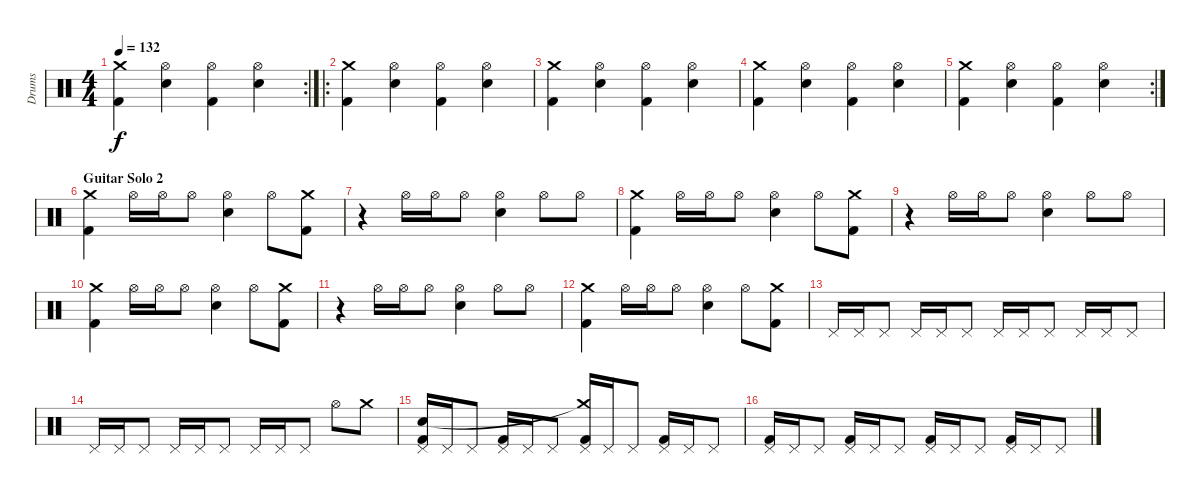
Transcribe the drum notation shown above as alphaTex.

\track ("Drums" "Drums") {instrument percussion}
\staff {score}
\articulation defaults
\rc 2
\ts (4 4)
\tempo 132
\clef neutral
\ks c
("Kick (hit) 2" "Crash medium (hit)").4{dy f} ("Electric Snare (hit)" "Hi-Hat (open)").4 ("Kick (hit) 2" "Hi-Hat (open)").4 ("Electric Snare (hit)" "Hi-Hat (open)").4 |
\ro
("Kick (hit) 2" "Crash medium (hit)").4 ("Electric Snare (hit)" "Hi-Hat (open)").4 ("Kick (hit) 2" "Hi-Hat (open)").4 ("Electric Snare (hit)" "Hi-Hat (open)").4 |
("Kick (hit) 2" "Crash medium (hit)").4 ("Electric Snare (hit)" "Hi-Hat (open)").4 ("Kick (hit) 2" "Hi-Hat (open)").4 ("Electric Snare (hit)" "Hi-Hat (open)").4 |
("Kick (hit) 2" "Crash medium (hit)").4 ("Electric Snare (hit)" "Hi-Hat (open)").4 ("Kick (hit) 2" "Hi-Hat (open)").4 ("Electric Snare (hit)" "Hi-Hat (open)").4 |
\rc 2
("Kick (hit) 2" "Crash medium (hit)").4 ("Electric Snare (hit)" "Hi-Hat (open)").4 ("Kick (hit) 2" "Hi-Hat (open)").4 ("Electric Snare (hit)" "Hi-Hat (open)").4 |
\section ("" "Guitar Solo 2")
("Kick (hit) 2" "Crash medium (hit)").4 "Hi-Hat (open)".16 "Hi-Hat (open)".16 "Hi-Hat (open)".8 ("Snare (hit) 2" "Hi-Hat (open)").4 "Hi-Hat (open)".8 ("Kick (hit) 2" "Crash medium (hit)").8 |
r.4 "Hi-Hat (open)".16 "Hi-Hat (open)".16 "Hi-Hat (open)".8 ("Snare (hit) 2" "Hi-Hat (open)").4 "Hi-Hat (open)".8 "Hi-Hat (open)".8 |
("Kick (hit) 2" "Crash medium (hit)").4 "Hi-Hat (open)".16 "Hi-Hat (open)".16 "Hi-Hat (open)".8 ("Snare (hit) 2" "Hi-Hat (open)").4 "Hi-Hat (open)".8 ("Kick (hit) 2" "Crash medium (hit)").8 |
r.4 "Hi-Hat (open)".16 "Hi-Hat (open)".16 "Hi-Hat (open)".8 ("Snare (hit) 2" "Hi-Hat (open)").4 "Hi-Hat (open)".8 "Hi-Hat (open)".8 |
("Kick (hit) 2" "Crash medium (hit)").4 "Hi-Hat (open)".16 "Hi-Hat (open)".16 "Hi-Hat (open)".8 ("Snare (hit) 2" "Hi-Hat (open)").4 "Hi-Hat (open)".8 ("Kick (hit) 2" "Crash medium (hit)").8 |
r.4 "Hi-Hat (open)".16 "Hi-Hat (open)".16 "Hi-Hat (open)".8 ("Snare (hit) 2" "Hi-Hat (open)").4 "Hi-Hat (open)".8 "Hi-Hat (open)".8 |
("Kick (hit) 2" "Crash medium (hit)").4 "Hi-Hat (open)".16 "Hi-Hat (open)".16 "Hi-Hat (open)".8 ("Snare (hit) 2" "Hi-Hat (open)").4 "Hi-Hat (open)".8 ("Kick (hit) 2" "Crash medium (hit)").8 |
"Pedal Hi-Hat (hit)".16{volume 6} "Pedal Hi-Hat (hit)".16 "Pedal Hi-Hat (hit)".8 "Pedal Hi-Hat (hit)".16 "Pedal Hi-Hat (hit)".16 "Pedal Hi-Hat (hit)".8 "Pedal Hi-Hat (hit)".16{volume 7} "Pedal Hi-Hat (hit)".16 "Pedal Hi-Hat (hit)".8 "Pedal Hi-Hat (hit)".16 "Pedal Hi-Hat (hit)".16 "Pedal Hi-Hat (hit)".8 |
"Pedal Hi-Hat (hit)".16{volume 8} "Pedal Hi-Hat (hit)".16 "Pedal Hi-Hat (hit)".8 "Pedal Hi-Hat (hit)".16 "Pedal Hi-Hat (hit)".16 "Pedal Hi-Hat (hit)".8 "Pedal Hi-Hat (hit)".16 "Pedal Hi-Hat (hit)".16 "Pedal Hi-Hat (hit)".8 "Hi-Hat (open)".8{volume 10} "Crash medium (hit)".8 |
("Kick (hit) 2" "Pedal Hi-Hat (hit)" "Snare (hit)").16{volume 8} "Pedal Hi-Hat (hit)".16 "Pedal Hi-Hat (hit)".8 ("Kick (hit) 2" "Pedal Hi-Hat (hit)").16 "Pedal Hi-Hat (hit)".16 "Pedal Hi-Hat (hit)".8 ("Kick (hit) 2" "Pedal Hi-Hat (hit)" "Crash medium (hit)"{t}).16 "Pedal Hi-Hat (hit)".16 "Pedal Hi-Hat (hit)".8 ("Kick (hit) 2" "Pedal Hi-Hat (hit)").16 "Pedal Hi-Hat (hit)".16 "Pedal Hi-Hat (hit)".8 |
("Kick (hit) 2" "Pedal Hi-Hat (hit)").16{volume 8} "Pedal Hi-Hat (hit)".16 "Pedal Hi-Hat (hit)".8 ("Kick (hit) 2" "Pedal Hi-Hat (hit)").16 "Pedal Hi-Hat (hit)".16 "Pedal Hi-Hat (hit)".8 ("Kick (hit) 2" "Pedal Hi-Hat (hit)").16 "Pedal Hi-Hat (hit)".16 "Pedal Hi-Hat (hit)".8 ("Kick (hit) 2" "Pedal Hi-Hat (hit)").16 "Pedal Hi-Hat (hit)".16 "Pedal Hi-Hat (hit)".8
